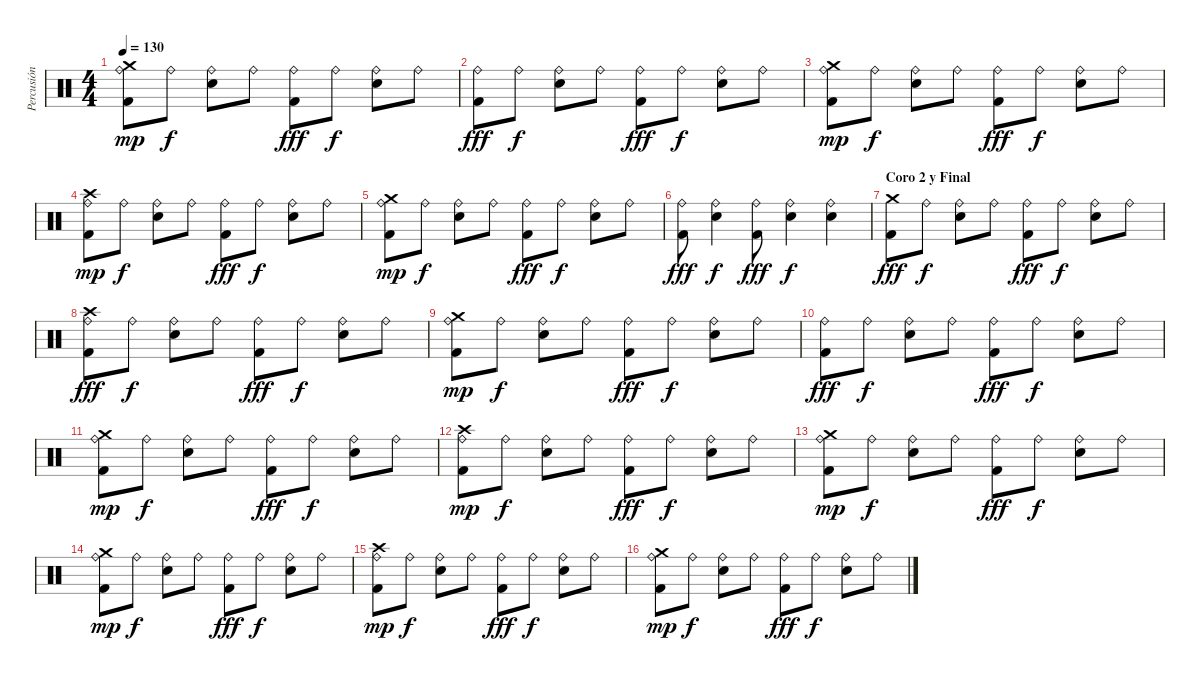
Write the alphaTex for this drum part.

\track ("Percusión" "Percusión") {instrument percussion}
\staff {score}
\articulation defaults
\ts (4 4)
\tempo 130
\clef neutral
\ks c
("Ride (bell)" "Kick (hit) 2" "Crash medium (hit)").8{dy mp} "Ride (bell)".8{dy f} ("Ride (bell)" "Snare (hit) 2").8 "Ride (bell)".8 ("Ride (bell)" "Kick (hit) 2").8{dy fff} "Ride (bell)".8{dy f} ("Ride (bell)" "Snare (hit) 2").8 "Ride (bell)".8 |
("Ride (bell)" "Kick (hit) 2").8{dy fff} "Ride (bell)".8{dy f} ("Ride (bell)" "Snare (hit) 2").8 "Ride (bell)".8 ("Ride (bell)" "Kick (hit) 2").8{dy fff} "Ride (bell)".8{dy f} ("Ride (bell)" "Snare (hit) 2").8 "Ride (bell)".8 |
("Ride (bell)" "Kick (hit) 2" "Crash medium (hit)").8{dy mp} "Ride (bell)".8{dy f} ("Ride (bell)" "Snare (hit) 2").8 "Ride (bell)".8 ("Ride (bell)" "Kick (hit) 2").8{dy fff} "Ride (bell)".8{dy f} ("Ride (bell)" "Snare (hit) 2").8 "Ride (bell)".8 |
("Ride (bell)" "Kick (hit) 2" "Crash high (hit)").8{dy mp} "Ride (bell)".8{dy f} ("Ride (bell)" "Snare (hit) 2").8 "Ride (bell)".8 ("Ride (bell)" "Kick (hit) 2").8{dy fff} "Ride (bell)".8{dy f} ("Ride (bell)" "Snare (hit) 2").8 "Ride (bell)".8 |
("Ride (bell)" "Kick (hit) 2" "Crash medium (hit)").8{dy mp} "Ride (bell)".8{dy f} ("Ride (bell)" "Snare (hit) 2").8 "Ride (bell)".8 ("Ride (bell)" "Kick (hit) 2").8{dy fff} "Ride (bell)".8{dy f} ("Ride (bell)" "Snare (hit) 2").8 "Ride (bell)".8 |
("Ride (bell)" "Kick (hit) 2").8{dy fff} ("Ride (bell)" "Snare (hit) 2").4{dy f} ("Ride (bell)" "Kick (hit) 2").8{dy fff} ("Ride (bell)" "Snare (hit) 2").4{dy f} ("Ride (bell)" "Snare (hit) 2").4 |
\section ("" "Coro 2 y Final")
("Crash medium (hit)" "Kick (hit) 2").8{dy fff} "Ride (bell)".8{dy f} ("Ride (bell)" "Snare (hit) 2").8 "Ride (bell)".8 ("Ride (bell)" "Kick (hit) 2").8{dy fff} "Ride (bell)".8{dy f} ("Ride (bell)" "Snare (hit) 2").8 "Ride (bell)".8 |
("Ride (bell)" "Kick (hit) 2" "Crash high (hit)").8{dy fff} "Ride (bell)".8{dy f} ("Ride (bell)" "Snare (hit) 2").8 "Ride (bell)".8 ("Ride (bell)" "Kick (hit) 2").8{dy fff} "Ride (bell)".8{dy f} ("Ride (bell)" "Snare (hit) 2").8 "Ride (bell)".8 |
("Ride (bell)" "Kick (hit) 2" "Crash medium (hit)").8{dy mp} "Ride (bell)".8{dy f} ("Ride (bell)" "Snare (hit) 2").8 "Ride (bell)".8 ("Ride (bell)" "Kick (hit) 2").8{dy fff} "Ride (bell)".8{dy f} ("Ride (bell)" "Snare (hit) 2").8 "Ride (bell)".8 |
("Ride (bell)" "Kick (hit) 2").8{dy fff} "Ride (bell)".8{dy f} ("Ride (bell)" "Snare (hit) 2").8 "Ride (bell)".8 ("Ride (bell)" "Kick (hit) 2").8{dy fff} "Ride (bell)".8{dy f} ("Ride (bell)" "Snare (hit) 2").8 "Ride (bell)".8 |
("Ride (bell)" "Kick (hit) 2" "Crash medium (hit)").8{dy mp} "Ride (bell)".8{dy f} ("Ride (bell)" "Snare (hit) 2").8 "Ride (bell)".8 ("Ride (bell)" "Kick (hit) 2").8{dy fff} "Ride (bell)".8{dy f} ("Ride (bell)" "Snare (hit) 2").8 "Ride (bell)".8 |
("Ride (bell)" "Kick (hit) 2" "Crash high (hit)").8{dy mp} "Ride (bell)".8{dy f} ("Ride (bell)" "Snare (hit) 2").8 "Ride (bell)".8 ("Ride (bell)" "Kick (hit) 2").8{dy fff} "Ride (bell)".8{dy f} ("Ride (bell)" "Snare (hit) 2").8 "Ride (bell)".8 |
("Ride (bell)" "Kick (hit) 2" "Crash medium (hit)").8{dy mp} "Ride (bell)".8{dy f} ("Ride (bell)" "Snare (hit) 2").8 "Ride (bell)".8 ("Ride (bell)" "Kick (hit) 2").8{dy fff} "Ride (bell)".8{dy f} ("Ride (bell)" "Snare (hit) 2").8 "Ride (bell)".8 |
("Ride (bell)" "Kick (hit) 2" "Crash medium (hit)").8{dy mp} "Ride (bell)".8{dy f} ("Ride (bell)" "Snare (hit) 2").8 "Ride (bell)".8 ("Ride (bell)" "Kick (hit) 2").8{dy fff} "Ride (bell)".8{dy f} ("Ride (bell)" "Snare (hit) 2").8 "Ride (bell)".8 |
("Ride (bell)" "Kick (hit) 2" "Crash high (hit)").8{dy mp} "Ride (bell)".8{dy f} ("Ride (bell)" "Snare (hit) 2").8 "Ride (bell)".8 ("Ride (bell)" "Kick (hit) 2").8{dy fff} "Ride (bell)".8{dy f} ("Ride (bell)" "Snare (hit) 2").8 "Ride (bell)".8 |
("Ride (bell)" "Kick (hit) 2" "Crash medium (hit)").8{dy mp} "Ride (bell)".8{dy f} ("Ride (bell)" "Snare (hit) 2").8 "Ride (bell)".8 ("Ride (bell)" "Kick (hit) 2").8{dy fff} "Ride (bell)".8{dy f} ("Ride (bell)" "Snare (hit) 2").8 "Ride (bell)".8
